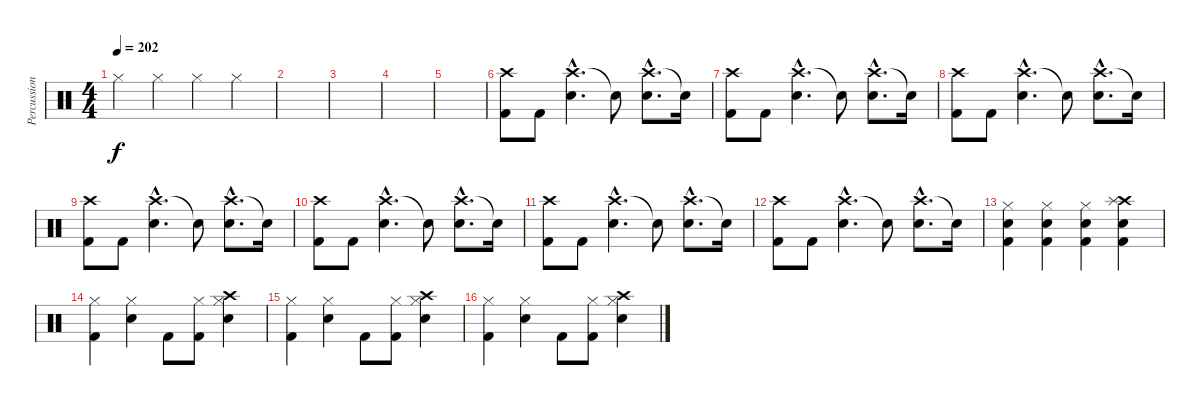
\track ("Percussioni" "Percussion") {instrument percussion}
\staff {score}
\articulation defaults
\ts (4 4)
\tempo 202
\clef neutral
\ks c "Hi-Hat (closed)".4{dy f} "Hi-Hat (closed)".4 "Hi-Hat (closed)".4 "Hi-Hat (closed)".4
|
|
|
|
|
("Crash high (hit)" "Kick (hit) 2").8 "Kick (hit) 2".8 ("Crash high (hit)"{hac} "Snare (hit) 2"{hac}).4{d} "Snare (hit) 2"{t}.8 ("Crash high (hit)"{hac} "Snare (hit) 2"{hac}).8{d} "Snare (hit)"{t}.16 |
("Crash high (hit)" "Kick (hit) 2").8 "Kick (hit) 2".8 ("Crash high (hit)"{hac} "Snare (hit) 2"{hac}).4{d} "Snare (hit) 2"{t}.8 ("Crash high (hit)"{hac} "Snare (hit) 2"{hac}).8{d} "Snare (hit)"{t}.16 |
("Crash high (hit)" "Kick (hit) 2").8 "Kick (hit) 2".8 ("Crash high (hit)"{hac} "Snare (hit) 2"{hac}).4{d} "Snare (hit) 2"{t}.8 ("Crash high (hit)"{hac} "Snare (hit) 2"{hac}).8{d} "Snare (hit)"{t}.16 |
("Crash high (hit)" "Kick (hit) 2").8 "Kick (hit) 2".8 ("Crash high (hit)"{hac} "Snare (hit) 2"{hac}).4{d} "Snare (hit) 2"{t}.8 ("Crash high (hit)"{hac} "Snare (hit) 2"{hac}).8{d} "Snare (hit)"{t}.16 |
("Crash high (hit)" "Kick (hit) 2").8 "Kick (hit) 2".8 ("Crash high (hit)"{hac} "Snare (hit) 2"{hac}).4{d} "Snare (hit) 2"{t}.8 ("Crash high (hit)"{hac} "Snare (hit) 2"{hac}).8{d} "Snare (hit)"{t}.16 |
("Crash high (hit)" "Kick (hit) 2").8 "Kick (hit) 2".8 ("Crash high (hit)"{hac} "Snare (hit) 2"{hac}).4{d} "Snare (hit) 2"{t}.8 ("Crash high (hit)"{hac} "Snare (hit) 2"{hac}).8{d} "Snare (hit)"{t}.16 |
("Crash high (hit)" "Kick (hit) 2").8 "Kick (hit) 2".8 ("Crash high (hit)"{hac} "Snare (hit) 2"{hac}).4{d} "Snare (hit) 2"{t}.8 ("Crash high (hit)"{hac} "Snare (hit) 2"{hac}).8{d} "Snare (hit)"{t}.16 |
("Hi-Hat (closed)" "Snare (hit) 2" "Kick (hit) 2").4 ("Hi-Hat (closed)" "Snare (hit) 2" "Kick (hit) 2").4 ("Hi-Hat (closed)" "Snare (hit) 2" "Kick (hit) 2").4 ("Crash high (hit)" "Splash (hit)" "Snare (hit) 2" "Kick (hit) 2").4 |
("Hi-Hat (closed)" "Kick (hit) 2").4 ("Hi-Hat (closed)" "Snare (hit) 2").4 "Kick (hit) 2".8 ("Hi-Hat (closed)" "Kick (hit) 2").8 ("Hi-Hat (closed)" "Crash high (hit)" "Snare (hit) 2").4 |
("Hi-Hat (closed)" "Kick (hit) 2").4 ("Hi-Hat (closed)" "Snare (hit) 2").4 "Kick (hit) 2".8 ("Hi-Hat (closed)" "Kick (hit) 2").8 ("Hi-Hat (closed)" "Crash high (hit)" "Snare (hit) 2").4 |
("Hi-Hat (closed)" "Kick (hit) 2").4 ("Hi-Hat (closed)" "Snare (hit) 2").4 "Kick (hit) 2".8 ("Hi-Hat (closed)" "Kick (hit) 2").8 ("Hi-Hat (closed)" "Crash high (hit)" "Snare (hit) 2").4
